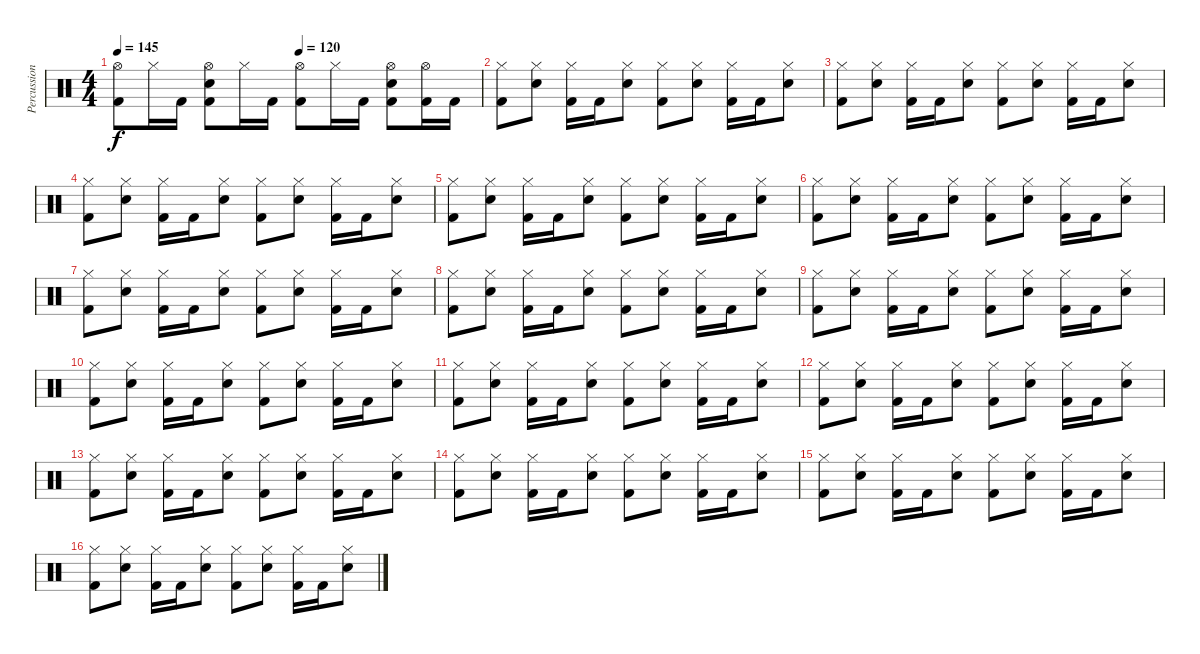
\track ("Percussions" "Percussion") {instrument percussion}
\staff {score}
\articulation defaults
\ts (4 4)
\tempo 145
\tempo (120 0.5)
\clef neutral
\ks c
("Hi-Hat (open)" "Kick (hit) 2").8{dy f} "Hi-Hat (closed)".16 "Kick (hit) 2".16 ("Hi-Hat (open)" "Kick (hit) 2" "Snare (hit) 2").8 "Hi-Hat (closed)".16 "Kick (hit) 2".16 ("Hi-Hat (open)" "Kick (hit) 2").8 "Hi-Hat (closed)".16 "Kick (hit) 2".16 ("Hi-Hat (open)" "Kick (hit) 2" "Snare (hit) 2").8 ("Hi-Hat (open)" "Kick (hit) 2").16 "Kick (hit) 2".16 |
("Hi-Hat (closed)" "Kick (hit) 2").8 ("Hi-Hat (closed)" "Snare (hit) 2").8 ("Hi-Hat (closed)" "Kick (hit) 2").16 "Kick (hit) 2".16 ("Hi-Hat (closed)" "Snare (hit) 2").8 ("Hi-Hat (closed)" "Kick (hit) 2").8 ("Hi-Hat (closed)" "Snare (hit) 2").8 ("Hi-Hat (closed)" "Kick (hit) 2").16 "Kick (hit) 2".16 ("Hi-Hat (closed)" "Snare (hit) 2").8 |
("Hi-Hat (closed)" "Kick (hit) 2").8 ("Hi-Hat (closed)" "Snare (hit) 2").8 ("Hi-Hat (closed)" "Kick (hit) 2").16 "Kick (hit) 2".16 ("Hi-Hat (closed)" "Snare (hit) 2").8 ("Hi-Hat (closed)" "Kick (hit) 2").8 ("Hi-Hat (closed)" "Snare (hit) 2").8 ("Hi-Hat (closed)" "Kick (hit) 2").16 "Kick (hit) 2".16 ("Hi-Hat (closed)" "Snare (hit) 2").8 |
("Hi-Hat (closed)" "Kick (hit) 2").8 ("Hi-Hat (closed)" "Snare (hit) 2").8 ("Hi-Hat (closed)" "Kick (hit) 2").16 "Kick (hit) 2".16 ("Hi-Hat (closed)" "Snare (hit) 2").8 ("Hi-Hat (closed)" "Kick (hit) 2").8 ("Hi-Hat (closed)" "Snare (hit) 2").8 ("Hi-Hat (closed)" "Kick (hit) 2").16 "Kick (hit) 2".16 ("Hi-Hat (closed)" "Snare (hit) 2").8 |
("Hi-Hat (closed)" "Kick (hit) 2").8 ("Hi-Hat (closed)" "Snare (hit) 2").8 ("Hi-Hat (closed)" "Kick (hit) 2").16 "Kick (hit) 2".16 ("Hi-Hat (closed)" "Snare (hit) 2").8 ("Hi-Hat (closed)" "Kick (hit) 2").8 ("Hi-Hat (closed)" "Snare (hit) 2").8 ("Hi-Hat (closed)" "Kick (hit) 2").16 "Kick (hit) 2".16 ("Hi-Hat (closed)" "Snare (hit) 2").8 |
("Hi-Hat (closed)" "Kick (hit) 2").8 ("Hi-Hat (closed)" "Snare (hit) 2").8 ("Hi-Hat (closed)" "Kick (hit) 2").16 "Kick (hit) 2".16 ("Hi-Hat (closed)" "Snare (hit) 2").8 ("Hi-Hat (closed)" "Kick (hit) 2").8 ("Hi-Hat (closed)" "Snare (hit) 2").8 ("Hi-Hat (closed)" "Kick (hit) 2").16 "Kick (hit) 2".16 ("Hi-Hat (closed)" "Snare (hit) 2").8 |
("Hi-Hat (closed)" "Kick (hit) 2").8 ("Hi-Hat (closed)" "Snare (hit) 2").8 ("Hi-Hat (closed)" "Kick (hit) 2").16 "Kick (hit) 2".16 ("Hi-Hat (closed)" "Snare (hit) 2").8 ("Hi-Hat (closed)" "Kick (hit) 2").8 ("Hi-Hat (closed)" "Snare (hit) 2").8 ("Hi-Hat (closed)" "Kick (hit) 2").16 "Kick (hit) 2".16 ("Hi-Hat (closed)" "Snare (hit) 2").8 |
("Hi-Hat (closed)" "Kick (hit) 2").8 ("Hi-Hat (closed)" "Snare (hit) 2").8 ("Hi-Hat (closed)" "Kick (hit) 2").16 "Kick (hit) 2".16 ("Hi-Hat (closed)" "Snare (hit) 2").8 ("Hi-Hat (closed)" "Kick (hit) 2").8 ("Hi-Hat (closed)" "Snare (hit) 2").8 ("Hi-Hat (closed)" "Kick (hit) 2").16 "Kick (hit) 2".16 ("Hi-Hat (closed)" "Snare (hit) 2").8 |
("Hi-Hat (closed)" "Kick (hit) 2").8 ("Hi-Hat (closed)" "Snare (hit) 2").8 ("Hi-Hat (closed)" "Kick (hit) 2").16 "Kick (hit) 2".16 ("Hi-Hat (closed)" "Snare (hit) 2").8 ("Hi-Hat (closed)" "Kick (hit) 2").8 ("Hi-Hat (closed)" "Snare (hit) 2").8 ("Hi-Hat (closed)" "Kick (hit) 2").16 "Kick (hit) 2".16 ("Hi-Hat (closed)" "Snare (hit) 2").8 |
("Hi-Hat (closed)" "Kick (hit) 2").8 ("Hi-Hat (closed)" "Snare (hit) 2").8 ("Hi-Hat (closed)" "Kick (hit) 2").16 "Kick (hit) 2".16 ("Hi-Hat (closed)" "Snare (hit) 2").8 ("Hi-Hat (closed)" "Kick (hit) 2").8 ("Hi-Hat (closed)" "Snare (hit) 2").8 ("Hi-Hat (closed)" "Kick (hit) 2").16 "Kick (hit) 2".16 ("Hi-Hat (closed)" "Snare (hit) 2").8 |
("Hi-Hat (closed)" "Kick (hit) 2").8 ("Hi-Hat (closed)" "Snare (hit) 2").8 ("Hi-Hat (closed)" "Kick (hit) 2").16 "Kick (hit) 2".16 ("Hi-Hat (closed)" "Snare (hit) 2").8 ("Hi-Hat (closed)" "Kick (hit) 2").8 ("Hi-Hat (closed)" "Snare (hit) 2").8 ("Hi-Hat (closed)" "Kick (hit) 2").16 "Kick (hit) 2".16 ("Hi-Hat (closed)" "Snare (hit) 2").8 |
("Hi-Hat (closed)" "Kick (hit) 2").8 ("Hi-Hat (closed)" "Snare (hit) 2").8 ("Hi-Hat (closed)" "Kick (hit) 2").16 "Kick (hit) 2".16 ("Hi-Hat (closed)" "Snare (hit) 2").8 ("Hi-Hat (closed)" "Kick (hit) 2").8 ("Hi-Hat (closed)" "Snare (hit) 2").8 ("Hi-Hat (closed)" "Kick (hit) 2").16 "Kick (hit) 2".16 ("Hi-Hat (closed)" "Snare (hit) 2").8 |
("Hi-Hat (closed)" "Kick (hit) 2").8 ("Hi-Hat (closed)" "Snare (hit) 2").8 ("Hi-Hat (closed)" "Kick (hit) 2").16 "Kick (hit) 2".16 ("Hi-Hat (closed)" "Snare (hit) 2").8 ("Hi-Hat (closed)" "Kick (hit) 2").8 ("Hi-Hat (closed)" "Snare (hit) 2").8 ("Hi-Hat (closed)" "Kick (hit) 2").16 "Kick (hit) 2".16 ("Hi-Hat (closed)" "Snare (hit) 2").8 |
("Hi-Hat (closed)" "Kick (hit) 2").8 ("Hi-Hat (closed)" "Snare (hit) 2").8 ("Hi-Hat (closed)" "Kick (hit) 2").16 "Kick (hit) 2".16 ("Hi-Hat (closed)" "Snare (hit) 2").8 ("Hi-Hat (closed)" "Kick (hit) 2").8 ("Hi-Hat (closed)" "Snare (hit) 2").8 ("Hi-Hat (closed)" "Kick (hit) 2").16 "Kick (hit) 2".16 ("Hi-Hat (closed)" "Snare (hit) 2").8 |
("Hi-Hat (closed)" "Kick (hit) 2").8 ("Hi-Hat (closed)" "Snare (hit) 2").8 ("Hi-Hat (closed)" "Kick (hit) 2").16 "Kick (hit) 2".16 ("Hi-Hat (closed)" "Snare (hit) 2").8 ("Hi-Hat (closed)" "Kick (hit) 2").8 ("Hi-Hat (closed)" "Snare (hit) 2").8 ("Hi-Hat (closed)" "Kick (hit) 2").16 "Kick (hit) 2".16 ("Hi-Hat (closed)" "Snare (hit) 2").8 |
("Hi-Hat (closed)" "Kick (hit) 2").8 ("Hi-Hat (closed)" "Snare (hit) 2").8 ("Hi-Hat (closed)" "Kick (hit) 2").16 "Kick (hit) 2".16 ("Hi-Hat (closed)" "Snare (hit) 2").8 ("Hi-Hat (closed)" "Kick (hit) 2").8 ("Hi-Hat (closed)" "Snare (hit) 2").8 ("Hi-Hat (closed)" "Kick (hit) 2").16 "Kick (hit) 2".16 ("Hi-Hat (closed)" "Snare (hit) 2").8
